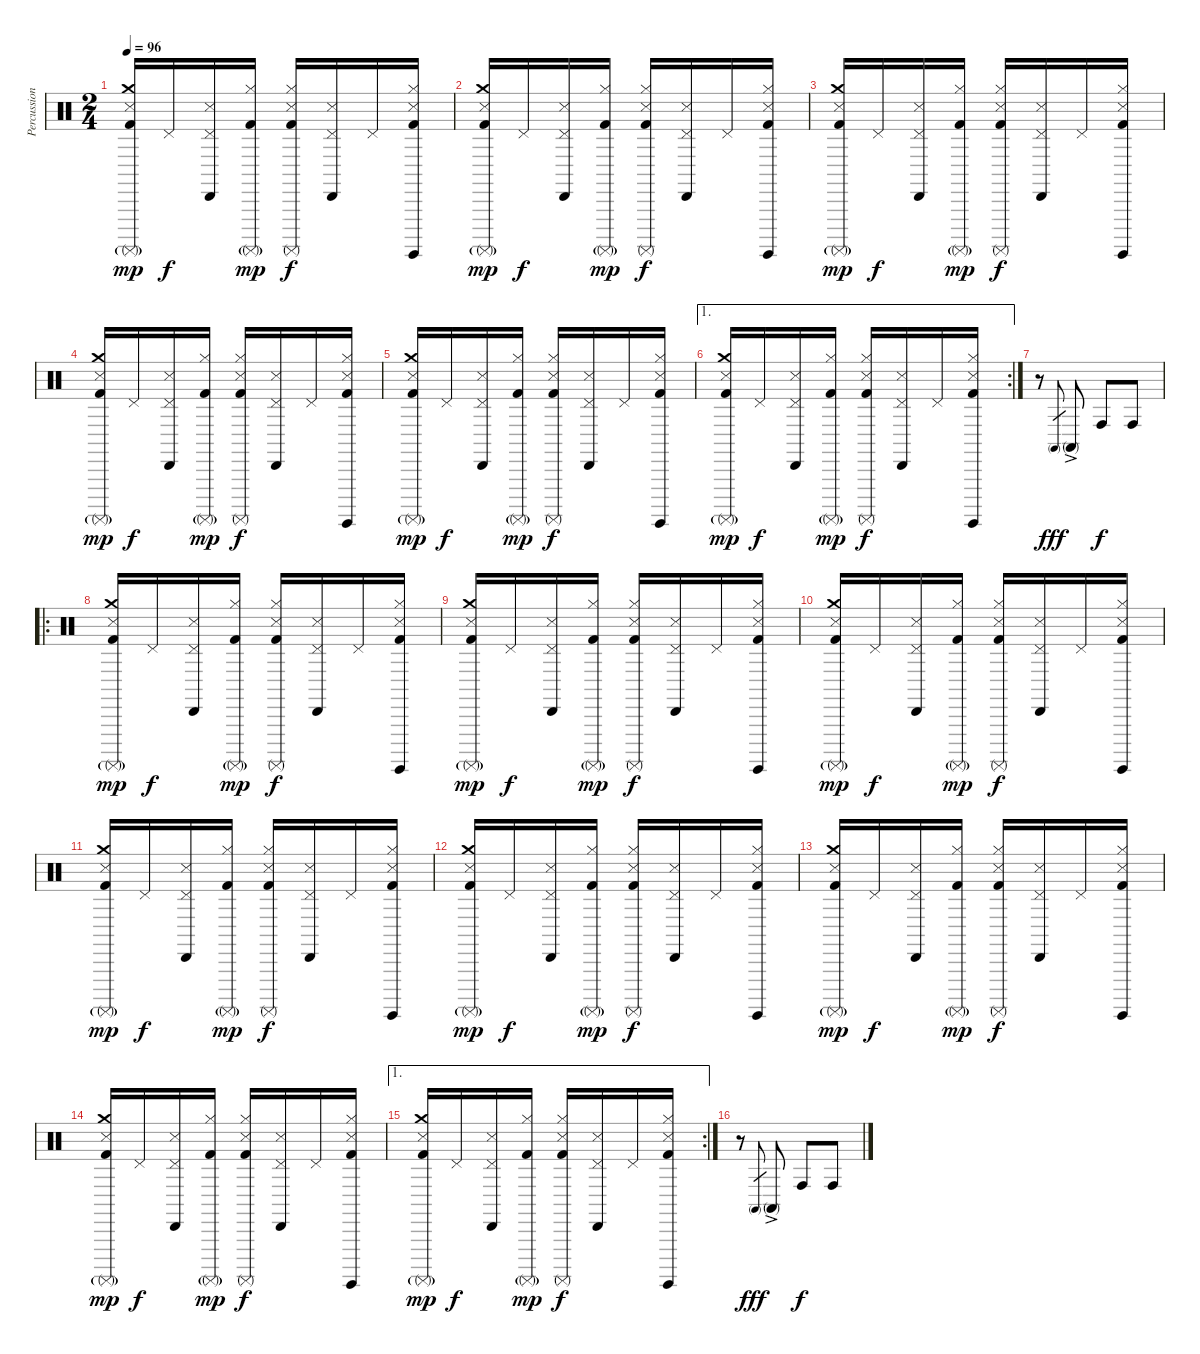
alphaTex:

\track ("Percussion" "Percussion") {instrument percussion}
\staff {score}
\articulation defaults
\ts (2 4)
\tempo 96
\clef neutral
\ks c
("Crash medium (hit)" "Snare (side stick) 3" "Surdo (mute)"{g} "Kick (hit) 2").16{dy mp volume 12} "Pedal Hi-Hat (hit)".16{dy f} ("Pedal Hi-Hat (hit)" "Cabasa (hit)" "Snare (side stick) 3").16 ("Hi-Hat (closed)" "Surdo (mute)"{g} "Kick (hit) 2").16{dy mp} ("Hi-Hat (closed)" "Snare (side stick) 3" "Surdo (mute)" "Kick (hit) 2").16{dy f} ("Pedal Hi-Hat (hit)" "Cabasa (hit)" "Snare (side stick) 3").16 "Pedal Hi-Hat (hit)".16 ("Hi-Hat (closed)" "Snare (side stick) 3" "Surdo (hit)" "Kick (hit) 2").16 |
("Crash medium (hit)" "Snare (side stick) 3" "Surdo (mute)"{g} "Kick (hit) 2").16{dy mp volume 12} "Pedal Hi-Hat (hit)".16{dy f} ("Pedal Hi-Hat (hit)" "Cabasa (hit)" "Snare (side stick) 3").16 ("Hi-Hat (closed)" "Surdo (mute)"{g} "Kick (hit) 2").16{dy mp} ("Hi-Hat (closed)" "Snare (side stick) 3" "Surdo (mute)" "Kick (hit) 2").16{dy f} ("Pedal Hi-Hat (hit)" "Cabasa (hit)" "Snare (side stick) 3").16 "Pedal Hi-Hat (hit)".16 ("Hi-Hat (closed)" "Snare (side stick) 3" "Surdo (hit)" "Kick (hit) 2").16 |
("Crash medium (hit)" "Snare (side stick) 3" "Surdo (mute)"{g} "Kick (hit) 2").16{dy mp volume 12} "Pedal Hi-Hat (hit)".16{dy f} ("Pedal Hi-Hat (hit)" "Cabasa (hit)" "Snare (side stick) 3").16 ("Hi-Hat (closed)" "Surdo (mute)"{g} "Kick (hit) 2").16{dy mp} ("Hi-Hat (closed)" "Snare (side stick) 3" "Surdo (mute)" "Kick (hit) 2").16{dy f} ("Pedal Hi-Hat (hit)" "Cabasa (hit)" "Snare (side stick) 3").16 "Pedal Hi-Hat (hit)".16 ("Hi-Hat (closed)" "Snare (side stick) 3" "Surdo (hit)" "Kick (hit) 2").16 |
("Crash medium (hit)" "Snare (side stick) 3" "Surdo (mute)"{g} "Kick (hit) 2").16{dy mp volume 12} "Pedal Hi-Hat (hit)".16{dy f} ("Pedal Hi-Hat (hit)" "Cabasa (hit)" "Snare (side stick) 3").16 ("Hi-Hat (closed)" "Surdo (mute)"{g} "Kick (hit) 2").16{dy mp} ("Hi-Hat (closed)" "Snare (side stick) 3" "Surdo (mute)" "Kick (hit) 2").16{dy f} ("Pedal Hi-Hat (hit)" "Cabasa (hit)" "Snare (side stick) 3").16 "Pedal Hi-Hat (hit)".16 ("Hi-Hat (closed)" "Snare (side stick) 3" "Surdo (hit)" "Kick (hit) 2").16 |
("Crash medium (hit)" "Snare (side stick) 3" "Surdo (mute)"{g} "Kick (hit) 2").16{dy mp volume 12} "Pedal Hi-Hat (hit)".16{dy f} ("Pedal Hi-Hat (hit)" "Cabasa (hit)" "Snare (side stick) 3").16 ("Hi-Hat (closed)" "Surdo (mute)"{g} "Kick (hit) 2").16{dy mp} ("Hi-Hat (closed)" "Snare (side stick) 3" "Surdo (mute)" "Kick (hit) 2").16{dy f} ("Pedal Hi-Hat (hit)" "Cabasa (hit)" "Snare (side stick) 3").16 "Pedal Hi-Hat (hit)".16 ("Hi-Hat (closed)" "Snare (side stick) 3" "Surdo (hit)" "Kick (hit) 2").16 |
\ae 1
\rc 2
("Crash medium (hit)" "Snare (side stick) 3" "Surdo (mute)"{g} "Kick (hit) 2").16{dy mp volume 12} "Pedal Hi-Hat (hit)".16{dy f} ("Pedal Hi-Hat (hit)" "Cabasa (hit)" "Snare (side stick) 3").16 ("Hi-Hat (closed)" "Surdo (mute)"{g} "Kick (hit) 2").16{dy mp} ("Hi-Hat (closed)" "Snare (side stick) 3" "Surdo (mute)" "Kick (hit) 2").16{dy f} ("Pedal Hi-Hat (hit)" "Cabasa (hit)" "Snare (side stick) 3").16 "Pedal Hi-Hat (hit)".16 ("Hi-Hat (closed)" "Snare (side stick) 3" "Surdo (hit)" "Kick (hit) 2").16 |
r.8{volume 16} "Conga high (mute)".8{gr dy fff} "Conga high (mute)"{ac}.8 "Conga high (hit)".8{dy f} "Conga high (hit)".8 |
\ro
("Crash medium (hit)" "Snare (side stick) 3" "Surdo (mute)"{g} "Kick (hit) 2").16{dy mp volume 12} "Pedal Hi-Hat (hit)".16{dy f} ("Pedal Hi-Hat (hit)" "Cabasa (hit)" "Snare (side stick) 3").16 ("Hi-Hat (closed)" "Surdo (mute)"{g} "Kick (hit) 2").16{dy mp} ("Hi-Hat (closed)" "Snare (side stick) 3" "Surdo (mute)" "Kick (hit) 2").16{dy f} ("Pedal Hi-Hat (hit)" "Cabasa (hit)" "Snare (side stick) 3").16 "Pedal Hi-Hat (hit)".16 ("Hi-Hat (closed)" "Snare (side stick) 3" "Surdo (hit)" "Kick (hit) 2").16 |
("Crash medium (hit)" "Snare (side stick) 3" "Surdo (mute)"{g} "Kick (hit) 2").16{dy mp volume 12} "Pedal Hi-Hat (hit)".16{dy f} ("Pedal Hi-Hat (hit)" "Cabasa (hit)" "Snare (side stick) 3").16 ("Hi-Hat (closed)" "Surdo (mute)"{g} "Kick (hit) 2").16{dy mp} ("Hi-Hat (closed)" "Snare (side stick) 3" "Surdo (mute)" "Kick (hit) 2").16{dy f} ("Pedal Hi-Hat (hit)" "Cabasa (hit)" "Snare (side stick) 3").16 "Pedal Hi-Hat (hit)".16 ("Hi-Hat (closed)" "Snare (side stick) 3" "Surdo (hit)" "Kick (hit) 2").16 |
("Crash medium (hit)" "Snare (side stick) 3" "Surdo (mute)"{g} "Kick (hit) 2").16{dy mp volume 12} "Pedal Hi-Hat (hit)".16{dy f} ("Pedal Hi-Hat (hit)" "Cabasa (hit)" "Snare (side stick) 3").16 ("Hi-Hat (closed)" "Surdo (mute)"{g} "Kick (hit) 2").16{dy mp} ("Hi-Hat (closed)" "Snare (side stick) 3" "Surdo (mute)" "Kick (hit) 2").16{dy f} ("Pedal Hi-Hat (hit)" "Cabasa (hit)" "Snare (side stick) 3").16 "Pedal Hi-Hat (hit)".16 ("Hi-Hat (closed)" "Snare (side stick) 3" "Surdo (hit)" "Kick (hit) 2").16 |
("Crash medium (hit)" "Snare (side stick) 3" "Surdo (mute)"{g} "Kick (hit) 2").16{dy mp volume 12} "Pedal Hi-Hat (hit)".16{dy f} ("Pedal Hi-Hat (hit)" "Cabasa (hit)" "Snare (side stick) 3").16 ("Hi-Hat (closed)" "Surdo (mute)"{g} "Kick (hit) 2").16{dy mp} ("Hi-Hat (closed)" "Snare (side stick) 3" "Surdo (mute)" "Kick (hit) 2").16{dy f} ("Pedal Hi-Hat (hit)" "Cabasa (hit)" "Snare (side stick) 3").16 "Pedal Hi-Hat (hit)".16 ("Hi-Hat (closed)" "Snare (side stick) 3" "Surdo (hit)" "Kick (hit) 2").16 |
("Crash medium (hit)" "Snare (side stick) 3" "Surdo (mute)"{g} "Kick (hit) 2").16{dy mp volume 12} "Pedal Hi-Hat (hit)".16{dy f} ("Pedal Hi-Hat (hit)" "Cabasa (hit)" "Snare (side stick) 3").16 ("Hi-Hat (closed)" "Surdo (mute)"{g} "Kick (hit) 2").16{dy mp} ("Hi-Hat (closed)" "Snare (side stick) 3" "Surdo (mute)" "Kick (hit) 2").16{dy f} ("Pedal Hi-Hat (hit)" "Cabasa (hit)" "Snare (side stick) 3").16 "Pedal Hi-Hat (hit)".16 ("Hi-Hat (closed)" "Snare (side stick) 3" "Surdo (hit)" "Kick (hit) 2").16 |
("Crash medium (hit)" "Snare (side stick) 3" "Surdo (mute)"{g} "Kick (hit) 2").16{dy mp volume 12} "Pedal Hi-Hat (hit)".16{dy f} ("Pedal Hi-Hat (hit)" "Cabasa (hit)" "Snare (side stick) 3").16 ("Hi-Hat (closed)" "Surdo (mute)"{g} "Kick (hit) 2").16{dy mp} ("Hi-Hat (closed)" "Snare (side stick) 3" "Surdo (mute)" "Kick (hit) 2").16{dy f} ("Pedal Hi-Hat (hit)" "Cabasa (hit)" "Snare (side stick) 3").16 "Pedal Hi-Hat (hit)".16 ("Hi-Hat (closed)" "Snare (side stick) 3" "Surdo (hit)" "Kick (hit) 2").16 |
("Crash medium (hit)" "Snare (side stick) 3" "Surdo (mute)"{g} "Kick (hit) 2").16{dy mp volume 12} "Pedal Hi-Hat (hit)".16{dy f} ("Pedal Hi-Hat (hit)" "Cabasa (hit)" "Snare (side stick) 3").16 ("Hi-Hat (closed)" "Surdo (mute)"{g} "Kick (hit) 2").16{dy mp} ("Hi-Hat (closed)" "Snare (side stick) 3" "Surdo (mute)" "Kick (hit) 2").16{dy f} ("Pedal Hi-Hat (hit)" "Cabasa (hit)" "Snare (side stick) 3").16 "Pedal Hi-Hat (hit)".16 ("Hi-Hat (closed)" "Snare (side stick) 3" "Surdo (hit)" "Kick (hit) 2").16 |
\ae 1
\rc 2
("Crash medium (hit)" "Snare (side stick) 3" "Surdo (mute)"{g} "Kick (hit) 2").16{dy mp volume 12} "Pedal Hi-Hat (hit)".16{dy f} ("Pedal Hi-Hat (hit)" "Cabasa (hit)" "Snare (side stick) 3").16 ("Hi-Hat (closed)" "Surdo (mute)"{g} "Kick (hit) 2").16{dy mp} ("Hi-Hat (closed)" "Snare (side stick) 3" "Surdo (mute)" "Kick (hit) 2").16{dy f} ("Pedal Hi-Hat (hit)" "Cabasa (hit)" "Snare (side stick) 3").16 "Pedal Hi-Hat (hit)".16 ("Hi-Hat (closed)" "Snare (side stick) 3" "Surdo (hit)" "Kick (hit) 2").16 |
r.8{volume 16} "Conga high (mute)".8{gr dy fff} "Conga high (mute)"{ac}.8 "Conga high (hit)".8{dy f} "Conga high (hit)".8
